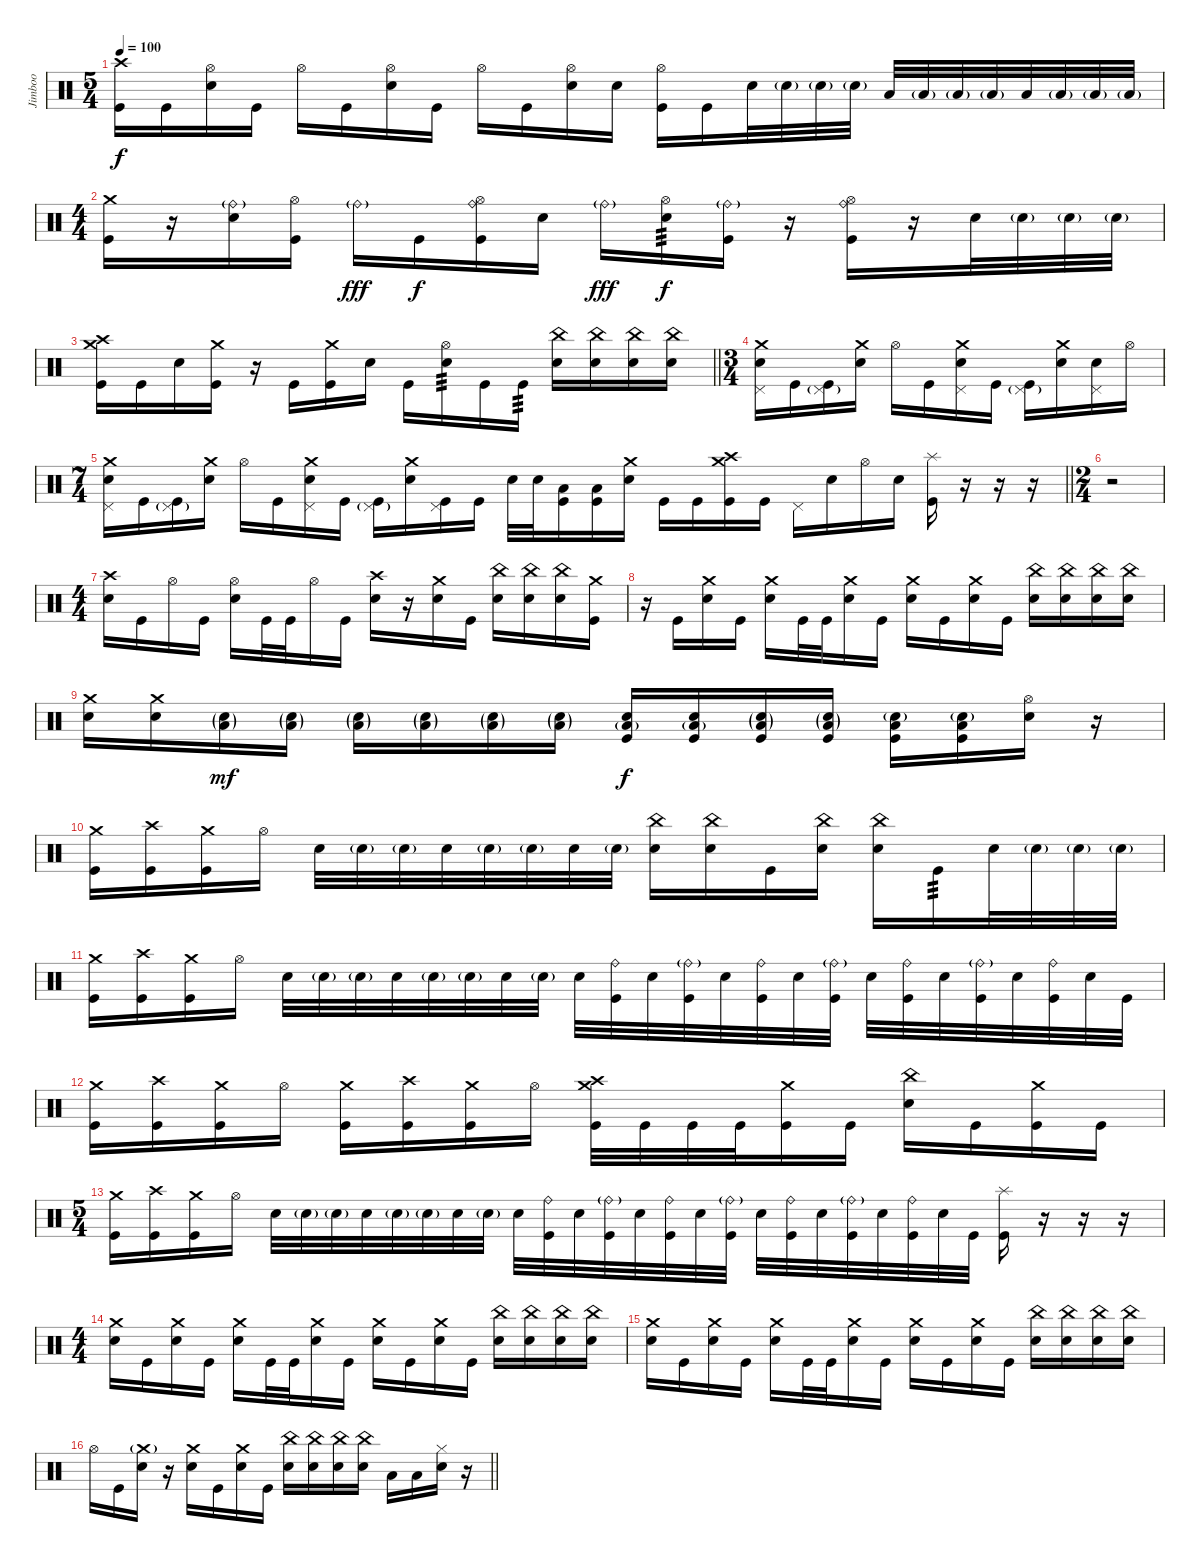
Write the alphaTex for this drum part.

\track ("Jimboo" "Jimboo") {instrument percussion}
\staff
\articulation defaults
\ts (5 4)
\tempo 100
\clef neutral
\ks c
("Kick (hit)" "Crash high (hit)").16{dy f} "Kick (hit)".16 ("Snare (hit) 2" "Hi-Hat (open)").16 "Kick (hit)".16 "Hi-Hat (open)".16 "Kick (hit)".16 ("Snare (hit) 2" "Hi-Hat (open)").16 "Kick (hit)".16 "Hi-Hat (open)".16 "Kick (hit)".16 ("Snare (hit) 2" "Hi-Hat (open)").16 "Snare (hit) 2".16 ("Kick (hit)" "Hi-Hat (open)").16 "Kick (hit)".16 "Snare (hit) 2".32 "Snare (hit) 2"{g}.32 "Snare (hit) 2"{g}.32 "Snare (hit) 2"{g}.32 "Low Tom (hit)".32 "Low Tom (hit)"{g}.32 "Low Tom (hit)"{g}.32 "Low Tom (hit)"{g}.32 "Low Floor Tom (hit)".32 "Low Floor Tom (hit)"{g}.32 "Low Floor Tom (hit)"{g}.32 "Low Floor Tom (hit)"{g}.32 |
\ts (4 4)
("Kick (hit)" "Crash medium (hit)").16 r.16 ("Snare (hit) 2" "Ride (bell)"{g}).16 ("Kick (hit)" "Hi-Hat (open)").16 "Ride (bell)"{g}.16{dy fff} "Kick (hit)".16{dy f} ("Kick (hit)" "Ride (bell)" "Hi-Hat (open)").16 "Snare (hit) 2".16 "Ride (bell)"{g}.16{dy fff} ("Snare (hit) 2" "Hi-Hat (open)").16{tp 3 dy f} ("Kick (hit)" "Ride (bell)"{g}).16 r.16 ("Kick (hit)" "Ride (bell)" "Hi-Hat (open)").16 r.16 "Snare (hit) 2".32 "Snare (hit) 2"{g}.32 "Snare (hit) 2"{g}.32 "Snare (hit) 2"{g}.32 |
\barLineRight lightlight
("Kick (hit)" "Crash medium (hit)" "Crash high (hit)").16 "Kick (hit)".16 "Snare (hit) 2".16 ("Kick (hit)" "Crash medium (hit)").16 r.16 "Kick (hit)".16 ("Kick (hit)" "Crash medium (hit)").16 "Snare (hit) 2".16 "Kick (hit)".16 ("Snare (hit) 2" "Hi-Hat (open)").16{tp 3} "Kick (hit)".16 "Kick (hit)".16{tp 3} ("Snare (hit) 2" "China (hit)").16 ("Snare (hit) 2" "China (hit)").16 ("Snare (hit) 2" "China (hit)").16 ("Snare (hit) 2" "China (hit)").16 |
\ts (3 4)
\section ("" "")
("Snare (hit) 2" "Crash medium (hit)" "Pedal Hi-Hat (hit)").16 "Kick (hit)".16 ("Kick (hit)" "Pedal Hi-Hat (hit)"{g}).16 ("Snare (hit) 2" "Crash medium (hit)").16 "Hi-Hat (open)".16 "Kick (hit)".16 ("Snare (hit) 2" "Crash medium (hit)" "Pedal Hi-Hat (hit)").16 "Kick (hit)".16 ("Kick (hit)" "Pedal Hi-Hat (hit)"{g}).16 ("Snare (hit) 2" "Crash medium (hit)").16 ("Snare (hit) 2" "Pedal Hi-Hat (hit)").16 "Hi-Hat (open)".16 |
\ts (7 4)
\barLineRight lightlight
("Snare (hit) 2" "Crash medium (hit)" "Pedal Hi-Hat (hit)").16 "Kick (hit)".16 ("Kick (hit)" "Pedal Hi-Hat (hit)"{g}).16 ("Snare (hit) 2" "Crash medium (hit)").16 "Hi-Hat (open)".16 "Kick (hit)".16 ("Snare (hit) 2" "Crash medium (hit)" "Pedal Hi-Hat (hit)").16 "Kick (hit)".16 ("Kick (hit)" "Pedal Hi-Hat (hit)"{g}).16 ("Snare (hit) 2" "Crash medium (hit)").16 ("Kick (hit)" "Pedal Hi-Hat (hit)").16 "Kick (hit)".16 "Snare (hit) 2".32 "Snare (hit) 2".32 ("Kick (hit)" "Low Tom (hit)").16 ("Kick (hit)" "Low Floor Tom (hit)").16 ("Snare (hit) 2" "Crash medium (hit)").16 "Kick (hit)".16 "Kick (hit)".16 ("Kick (hit)" "Crash medium (hit)" "Crash high (hit)").16 "Kick (hit)".16 "Pedal Hi-Hat (hit)".16 "Snare (hit) 2".16 "Hi-Hat (open)".16 "Snare (hit) 2".16 ("Kick (hit)" "Splash (hit)").16 r.16 r.16 r.16 |
\ts (2 4)
r.2 |
\ts (4 4)
("Snare (hit) 2" "Crash high (hit)").16 "Kick (hit)".16 "Hi-Hat (open)".16 "Kick (hit)".16 ("Snare (hit) 2" "Hi-Hat (open)").16 "Kick (hit)".32 "Kick (hit)".32 "Hi-Hat (open)".16 "Kick (hit)".16 ("Snare (hit) 2" "Crash high (hit)").16 r.16 ("Snare (hit) 2" "Crash medium (hit)").16 "Kick (hit)".16 ("Snare (hit) 2" "China (hit)").16 ("Snare (hit) 2" "China (hit)").16 ("Snare (hit) 2" "China (hit)").16 ("Kick (hit)" "Crash medium (hit)").16 |
r.16 "Kick (hit)".16 ("Snare (hit) 2" "Crash medium (hit)").16 "Kick (hit)".16 ("Snare (hit) 2" "Crash medium (hit)").16 "Kick (hit)".32 "Kick (hit)".32 ("Snare (hit) 2" "Crash medium (hit)").16 "Kick (hit)".16 ("Snare (hit) 2" "Crash medium (hit)").16 "Kick (hit)".16 ("Snare (hit) 2" "Crash medium (hit)").16 "Kick (hit)".16 ("Snare (hit) 2" "China (hit)").16 ("Snare (hit) 2" "China (hit)").16 ("Snare (hit) 2" "China (hit)").16 ("Snare (hit) 2" "China (hit)").16 |
("Snare (hit) 2" "Crash medium (hit)").16 ("Snare (hit) 2" "Crash medium (hit)").16 ("Snare (hit) 2"{g} "Low Floor Tom (hit)"{g}).16{dy mf} ("Snare (hit) 2"{g} "Low Floor Tom (hit)"{g}).16 ("Snare (hit) 2"{g} "Low Floor Tom (hit)"{g}).16 ("Snare (hit) 2"{g} "Low Floor Tom (hit)"{g}).16 ("Snare (hit) 2"{g} "Low Floor Tom (hit)"{g}).16 ("Snare (hit) 2"{g} "Low Floor Tom (hit)"{g}).16 ("Snare (hit) 2" "Low Floor Tom (hit)"{g} "Kick (hit)").16{dy f} ("Snare (hit) 2" "Low Floor Tom (hit)"{g} "Kick (hit)").16 ("Snare (hit) 2"{g} "Low Floor Tom (hit)"{g} "Kick (hit)").16 ("Snare (hit) 2"{g} "Low Floor Tom (hit)"{g} "Kick (hit)").16 ("Snare (hit) 2"{g} "Low Floor Tom (hit)" "Kick (hit)").16 ("Snare (hit) 2"{g} "Low Floor Tom (hit)" "Kick (hit)").16 ("Snare (hit) 2" "Hi-Hat (open)").16 r.16 |
("Kick (hit)" "Crash medium (hit)").16 ("Kick (hit)" "Crash high (hit)").16 ("Kick (hit)" "Crash medium (hit)").16 "Hi-Hat (open)".16 "Snare (hit) 2".32 "Snare (hit) 2"{g}.32 "Snare (hit) 2"{g}.32 "Snare (hit) 2".32 "Snare (hit) 2"{g}.32 "Snare (hit) 2"{g}.32 "Snare (hit) 2".32 "Snare (hit) 2"{g}.32 ("Snare (hit) 2" "China (hit)").16 ("Snare (hit) 2" "China (hit)").16 "Kick (hit)".16 ("Snare (hit) 2" "China (hit)").16 ("Snare (hit) 2" "China (hit)").16 "Kick (hit)".16{tp 3} "Snare (hit) 2".32 "Snare (hit) 2"{g}.32 "Snare (hit) 2"{g}.32 "Snare (hit) 2"{g}.32 |
("Kick (hit)" "Crash medium (hit)").16 ("Kick (hit)" "Crash high (hit)").16 ("Kick (hit)" "Crash medium (hit)").16 "Hi-Hat (open)".16 "Snare (hit) 2".32 "Snare (hit) 2"{g}.32 "Snare (hit) 2"{g}.32 "Snare (hit) 2".32 "Snare (hit) 2"{g}.32 "Snare (hit) 2"{g}.32 "Snare (hit) 2".32 "Snare (hit) 2"{g}.32 "Snare (hit) 2".32 ("Kick (hit)" "Ride (bell)").32 "Snare (hit) 2".32 ("Kick (hit)" "Ride (bell)"{g}).32 "Snare (hit) 2".32 ("Kick (hit)" "Ride (bell)").32 "Snare (hit) 2".32 ("Kick (hit)" "Ride (bell)"{g}).32 "Snare (hit) 2".32 ("Kick (hit)" "Ride (bell)").32 "Snare (hit) 2".32 ("Kick (hit)" "Ride (bell)"{g}).32 "Snare (hit) 2".32 ("Kick (hit)" "Ride (bell)").32 "Snare (hit) 2".32 "Kick (hit)".32 |
("Kick (hit)" "Crash medium (hit)").16 ("Kick (hit)" "Crash high (hit)").16 ("Kick (hit)" "Crash medium (hit)").16 "Hi-Hat (open)".16 ("Kick (hit)" "Crash medium (hit)").16 ("Kick (hit)" "Crash high (hit)").16 ("Kick (hit)" "Crash medium (hit)").16 "Hi-Hat (open)".16 ("Kick (hit)" "Crash medium (hit)" "Crash high (hit)").32 "Kick (hit)".32 "Kick (hit)".32 "Kick (hit)".32 ("Kick (hit)" "Crash medium (hit)").16 "Kick (hit)".16 ("Snare (hit) 2" "China (hit)").16 "Kick (hit)".16 ("Kick (hit)" "Crash medium (hit)").16 "Kick (hit)".16 |
\ts (5 4)
("Kick (hit)" "Crash medium (hit)").16 ("Kick (hit)" "Crash high (hit)").16 ("Kick (hit)" "Crash medium (hit)").16 "Hi-Hat (open)".16 "Snare (hit) 2".32 "Snare (hit) 2"{g}.32 "Snare (hit) 2"{g}.32 "Snare (hit) 2".32 "Snare (hit) 2"{g}.32 "Snare (hit) 2"{g}.32 "Snare (hit) 2".32 "Snare (hit) 2"{g}.32 "Snare (hit) 2".32 ("Kick (hit)" "Ride (bell)").32 "Snare (hit) 2".32 ("Kick (hit)" "Ride (bell)"{g}).32 "Snare (hit) 2".32 ("Kick (hit)" "Ride (bell)").32 "Snare (hit) 2".32 ("Kick (hit)" "Ride (bell)"{g}).32 "Snare (hit) 2".32 ("Kick (hit)" "Ride (bell)").32 "Snare (hit) 2".32 ("Kick (hit)" "Ride (bell)"{g}).32 "Snare (hit) 2".32 ("Kick (hit)" "Ride (bell)").32 "Snare (hit) 2".32 "Kick (hit)".32 ("Kick (hit)" "Splash (hit)").16 r.16 r.16 r.16 |
\ts (4 4)
("Snare (hit) 2" "Crash medium (hit)").16 "Kick (hit)".16 ("Snare (hit) 2" "Crash medium (hit)").16 "Kick (hit)".16 ("Snare (hit) 2" "Crash medium (hit)").16 "Kick (hit)".32 "Kick (hit)".32 ("Snare (hit) 2" "Crash medium (hit)").16 "Kick (hit)".16 ("Snare (hit) 2" "Crash medium (hit)").16 "Kick (hit)".16 ("Snare (hit) 2" "Crash medium (hit)").16 "Kick (hit)".16 ("Snare (hit) 2" "China (hit)").16 ("Snare (hit) 2" "China (hit)").16 ("Snare (hit) 2" "China (hit)").16 ("Snare (hit) 2" "China (hit)").16 |
("Snare (hit) 2" "Crash medium (hit)").16 "Kick (hit)".16 ("Snare (hit) 2" "Crash medium (hit)").16 "Kick (hit)".16 ("Snare (hit) 2" "Crash medium (hit)").16 "Kick (hit)".32 "Kick (hit)".32 ("Snare (hit) 2" "Crash medium (hit)").16 "Kick (hit)".16 ("Snare (hit) 2" "Crash medium (hit)").16 "Kick (hit)".16 ("Snare (hit) 2" "Crash medium (hit)").16 "Kick (hit)".16 ("Snare (hit) 2" "China (hit)").16 ("Snare (hit) 2" "China (hit)").16 ("Snare (hit) 2" "China (hit)").16 ("Snare (hit) 2" "China (hit)").16 |
\barLineRight lightlight "Hi-Hat (open)".16 "Kick (hit)".16
("Snare (hit) 2" "Crash medium (hit)"{g}).16 r.16 ("Snare (hit) 2" "Crash medium (hit)").16 "Kick (hit)".16 ("Snare (hit) 2" "Crash medium (hit)").16 "Kick (hit)".16 ("Snare (hit) 2" "China (hit)").16 ("Snare (hit) 2" "China (hit)").16 ("Snare (hit) 2" "China (hit)").16 ("Snare (hit) 2" "China (hit)").16 "Low Tom (hit)".16 "Low Floor Tom (hit)".16 ("Snare (hit) 2" "Hi-Hat (closed)").16 r.16
